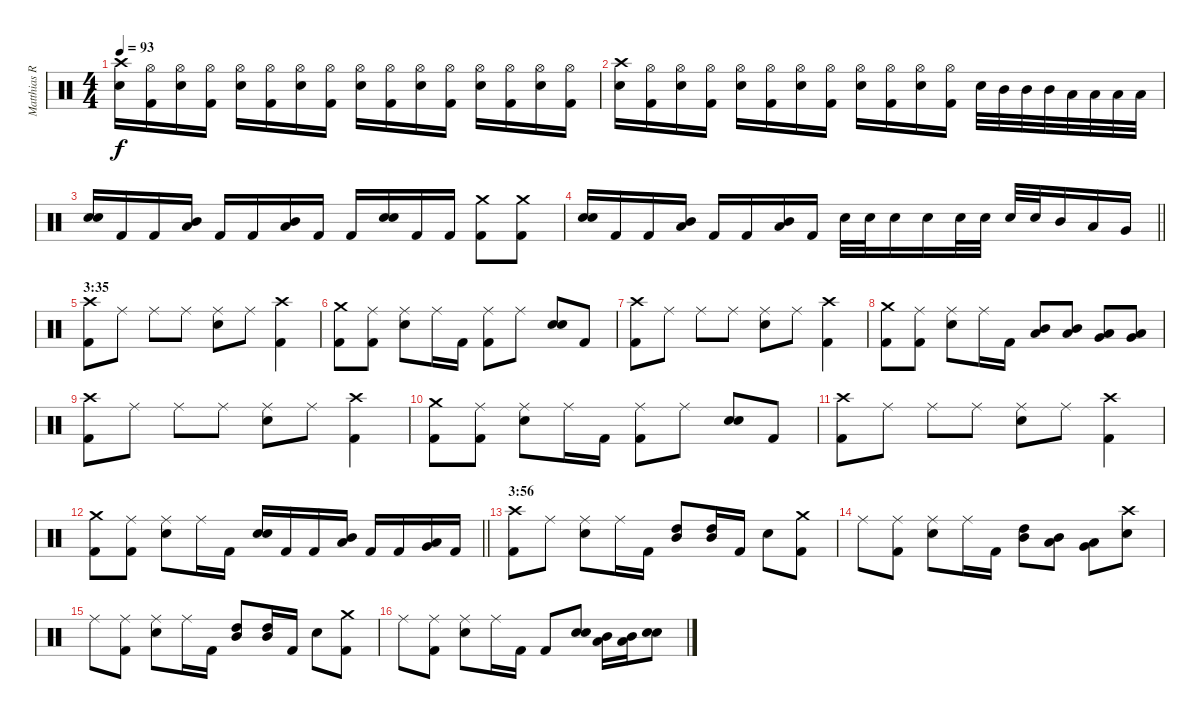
\track ("Matthias R." "Matthias R") {instrument percussion}
\staff {score}
\articulation defaults
\ts (4 4)
\tempo 93
\clef neutral
\ks c
("Snare (hit) 2" "Crash high (hit)").16{dy f} ("Kick (hit) 2" "Hi-Hat (open)").16 ("Snare (hit) 2" "Hi-Hat (open)").16 ("Kick (hit) 2" "Hi-Hat (open)").16 ("Snare (hit) 2" "Hi-Hat (open)").16 ("Kick (hit) 2" "Hi-Hat (open)").16 ("Snare (hit) 2" "Hi-Hat (open)").16 ("Kick (hit) 2" "Hi-Hat (open)").16 ("Snare (hit) 2" "Hi-Hat (open)").16 ("Kick (hit) 2" "Hi-Hat (open)").16 ("Snare (hit) 2" "Hi-Hat (open)").16 ("Kick (hit) 2" "Hi-Hat (open)").16 ("Snare (hit) 2" "Hi-Hat (open)").16 ("Kick (hit) 2" "Hi-Hat (open)").16 ("Snare (hit) 2" "Hi-Hat (open)").16 ("Kick (hit) 2" "Hi-Hat (open)").16 |
("Snare (hit) 2" "Crash high (hit)").16 ("Kick (hit) 2" "Hi-Hat (open)").16 ("Snare (hit) 2" "Hi-Hat (open)").16 ("Kick (hit) 2" "Hi-Hat (open)").16 ("Snare (hit) 2" "Hi-Hat (open)").16 ("Kick (hit) 2" "Hi-Hat (open)").16 ("Snare (hit) 2" "Hi-Hat (open)").16 ("Kick (hit) 2" "Hi-Hat (open)").16 ("Snare (hit) 2" "Hi-Hat (open)").16 ("Kick (hit) 2" "Hi-Hat (open)").16 ("Snare (hit) 2" "Hi-Hat (open)").16 ("Kick (hit) 2" "Hi-Hat (open)").16 "Snare (hit) 2".32 "Mid Tom (hit)".32 "Mid Tom (hit)".32 "Mid Tom (hit)".32 "Low Tom (hit)".32 "Low Tom (hit)".32 "Low Tom (hit)".32 "Low Tom (hit)".32 |
("Snare (hit) 2" "Electric Snare (hit)").16 "Kick (hit) 2".16 "Kick (hit) 2".16 ("Mid Tom (hit)" "Low Tom (hit)").16 "Kick (hit) 2".16 "Kick (hit) 2".16 ("Mid Tom (hit)" "Low Tom (hit)").16 "Kick (hit) 2".16 "Kick (hit) 2".16 ("Snare (hit) 2" "Electric Snare (hit)").16 "Kick (hit) 2".16 "Kick (hit) 2".16 ("Kick (hit) 2" "Crash medium (hit)").8 ("Kick (hit) 2" "Crash medium (hit)").8 |
\barLineRight lightlight
("Snare (hit) 2" "Electric Snare (hit)").16 "Kick (hit) 2".16 "Kick (hit) 2".16 ("Mid Tom (hit)" "Low Tom (hit)").16 "Kick (hit) 2".16 "Kick (hit) 2".16 ("Mid Tom (hit)" "Low Tom (hit)").16 "Kick (hit) 2".16 "Snare (hit) 2".32 "Snare (hit) 2".32 "Snare (hit) 2".16 "Snare (hit) 2".16 "Snare (hit) 2".32 "Snare (hit) 2".32 "Snare (hit) 2".32 "Snare (hit) 2".32 "Mid Tom (hit)".16 "Low Tom (hit)".16 "Very Low Tom (hit)".16 |
\section ("" "3:35")
("Kick (hit) 2" "Crash high (hit)").8 "Ride (middle)".8 "Ride (middle)".8 "Ride (middle)".8 ("Snare (hit) 2" "Ride (middle)").8 "Ride (middle)".8 ("Kick (hit) 2" "Crash high (hit)").4 |
("Kick (hit) 2" "Crash medium (hit)").8 ("Kick (hit) 2" "Ride (middle)").8 ("Snare (hit) 2" "Ride (middle)").8 "Ride (middle)".16 "Kick (hit) 2".16 ("Kick (hit) 2" "Ride (middle)").8 "Ride (middle)".8 ("Snare (hit) 2" "Electric Snare (hit)").8{bu 60} "Kick (hit) 2".8 |
("Kick (hit) 2" "Crash high (hit)").8 "Ride (middle)".8 "Ride (middle)".8 "Ride (middle)".8 ("Snare (hit) 2" "Ride (middle)").8 "Ride (middle)".8 ("Kick (hit) 2" "Crash high (hit)").4 |
("Kick (hit) 2" "Crash medium (hit)").8 ("Kick (hit) 2" "Ride (middle)").8 ("Snare (hit) 2" "Ride (middle)").8 "Ride (middle)".16 "Kick (hit) 2".16 ("Mid Tom (hit)" "Low Tom (hit)").8 ("Mid Tom (hit)" "Low Tom (hit)").8 ("Low Tom (hit)" "Very Low Tom (hit)").8 ("Low Tom (hit)" "Very Low Tom (hit)").8 |
("Kick (hit) 2" "Crash high (hit)").8 "Ride (middle)".8 "Ride (middle)".8 "Ride (middle)".8 ("Snare (hit) 2" "Ride (middle)").8 "Ride (middle)".8 ("Kick (hit) 2" "Crash high (hit)").4 |
("Kick (hit) 2" "Crash medium (hit)").8 ("Kick (hit) 2" "Ride (middle)").8 ("Snare (hit) 2" "Ride (middle)").8 "Ride (middle)".16 "Kick (hit) 2".16 ("Kick (hit) 2" "Ride (middle)").8 "Ride (middle)".8 ("Snare (hit) 2" "Electric Snare (hit)").8{bu 60} "Kick (hit) 2".8 |
("Kick (hit) 2" "Crash high (hit)").8 "Ride (middle)".8 "Ride (middle)".8 "Ride (middle)".8 ("Snare (hit) 2" "Ride (middle)").8 "Ride (middle)".8 ("Kick (hit) 2" "Crash high (hit)").4 |
\barLineRight lightlight
("Kick (hit) 2" "Crash medium (hit)").8 ("Kick (hit) 2" "Ride (middle)").8 ("Snare (hit) 2" "Ride (middle)").8 "Ride (middle)".16 "Kick (hit) 2".16 ("Snare (hit) 2" "Electric Snare (hit)").16 "Kick (hit) 2".16 "Kick (hit) 2".16 ("Mid Tom (hit)" "Low Tom (hit)").16 "Kick (hit) 2".16 "Kick (hit) 2".16 ("Low Tom (hit)" "Very Low Tom (hit)").16 "Kick (hit) 2".16 |
\section ("" "3:56")
("Kick (hit) 2" "Crash high (hit)").8 "Ride (middle)".8 ("Snare (hit) 2" "Ride (middle)").8 "Ride (middle)".16 "Kick (hit) 2".16 ("High Tom (hit)" "Mid Tom (hit)").8 ("High Tom (hit)" "Mid Tom (hit)").16 "Kick (hit) 2".16 "Snare (hit) 2".8 ("Kick (hit) 2" "Crash medium (hit)").8 |
"Ride (middle)".8 ("Kick (hit) 2" "Ride (middle)").8 ("Snare (hit) 2" "Ride (middle)").8 "Ride (middle)".16 "Kick (hit) 2".16 ("High Tom (hit)" "Mid Tom (hit)").8 ("Mid Tom (hit)" "Low Tom (hit)").8 ("Low Tom (hit)" "Very Low Tom (hit)").8 ("Snare (hit) 2" "Crash high (hit)").8 |
"Ride (middle)".8 ("Kick (hit) 2" "Ride (middle)").8 ("Snare (hit) 2" "Ride (middle)").8 "Ride (middle)".16 "Kick (hit) 2".16 ("High Tom (hit)" "Mid Tom (hit)").8 ("High Tom (hit)" "Mid Tom (hit)").16 "Kick (hit) 2".16 "Snare (hit) 2".8 ("Kick (hit) 2" "Crash medium (hit)").8 |
"Ride (middle)".8 ("Kick (hit) 2" "Ride (middle)").8 ("Snare (hit) 2" "Ride (middle)").8 "Ride (middle)".16 "Kick (hit) 2".16 "Kick (hit) 2".8 ("Snare (hit) 2" "Electric Snare (hit)").8{bu 30} ("Mid Tom (hit)" "Low Tom (hit)").16 ("Mid Tom (hit)" "Low Tom (hit)").16 ("Snare (hit) 2" "Electric Snare (hit)").8{bu 30}
